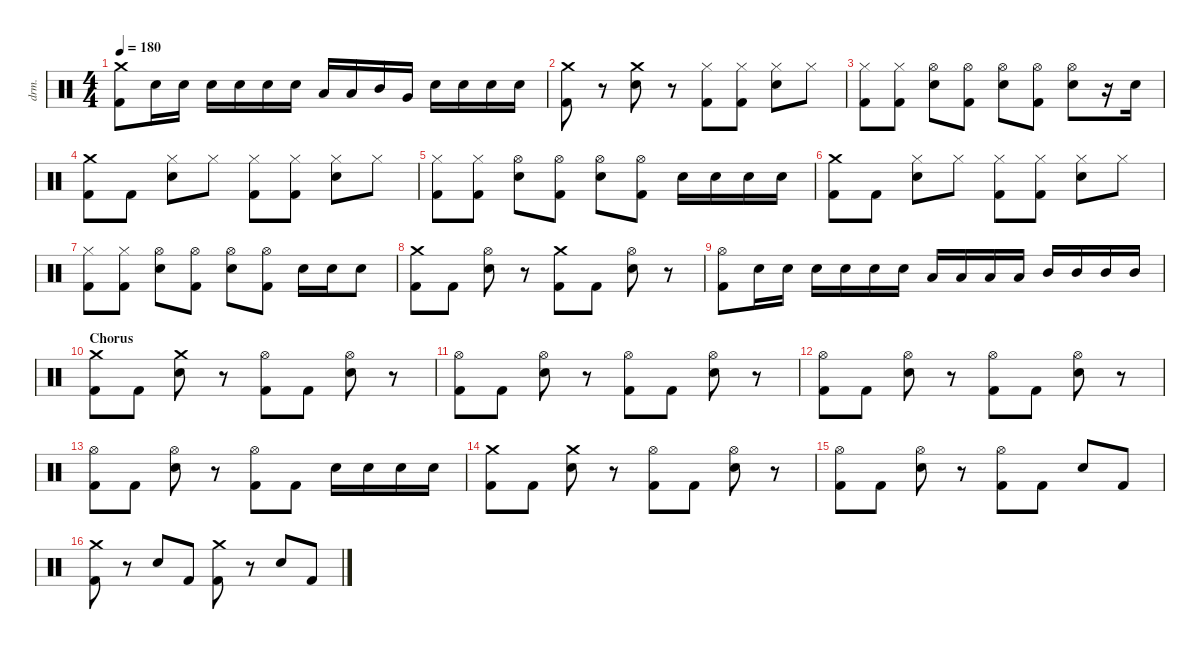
\defaultSystemsLayout 4
\hideDynamics
\bracketExtendMode nobrackets
\otherSystemsTrackNameOrientation horizontal
\track ("Drums" "drm.") {instrument percussion}
\staff {score}
\articulation defaults
\ts (4 4)
\tempo 180
\clef neutral
\ks c
("Crash medium (hit)" "Kick (hit) 2").8{dy f beam Down} "Snare (hit) 2".16{beam Down} "Snare (hit) 2".16{beam Down} "Snare (hit) 2".16{beam Down} "Snare (hit) 2".16{beam Down} "Snare (hit) 2".16{beam Down} "Snare (hit) 2".16{beam Down} "Low Tom (hit)".16{beam Up} "Low Tom (hit)".16{beam Up} "Mid Tom (hit)".16{beam Up} "Very Low Tom (hit)".16{beam Up} "Snare (hit) 2".16{beam Down} "Snare (hit) 2".16{beam Down} "Snare (hit) 2".16{beam Down} "Snare (hit) 2".16{beam Down} |
("Crash medium (hit)" "Kick (hit) 2").8{beam Down} r.8{beam Down} ("Crash medium (hit)" "Snare (hit) 2").8{beam Down} r.8{beam Down} ("Hi-Hat (closed)" "Kick (hit) 2").8{beam Down} ("Hi-Hat (closed)" "Kick (hit) 2").8{beam Down} ("Hi-Hat (closed)" "Snare (hit) 2").8{beam Down} "Hi-Hat (closed)".8{beam Down} |
("Hi-Hat (closed)" "Kick (hit) 2").8{beam Down} ("Hi-Hat (closed)" "Kick (hit) 2").8{beam Down} ("Hi-Hat (open)" "Snare (hit) 2").8{beam Down} ("Hi-Hat (open)" "Kick (hit) 2").8{beam Down} ("Hi-Hat (open)" "Snare (hit) 2").8{beam Down} ("Hi-Hat (open)" "Kick (hit) 2").8{beam Down} ("Hi-Hat (open)" "Snare (hit) 2").8{beam Down} r.16{beam Down} "Snare (hit) 2".16{beam Down} |
("Crash medium (hit)" "Kick (hit) 2").8{beam Down} "Kick (hit) 2".8{beam Down} ("Hi-Hat (closed)" "Snare (hit) 2").8{beam Down} "Hi-Hat (closed)".8{beam Down} ("Hi-Hat (closed)" "Kick (hit) 2").8{beam Down} ("Hi-Hat (closed)" "Kick (hit) 2").8{beam Down} ("Hi-Hat (closed)" "Snare (hit) 2").8{beam Down} "Hi-Hat (closed)".8{beam Down} |
("Hi-Hat (closed)" "Kick (hit) 2").8{beam Down} ("Hi-Hat (closed)" "Kick (hit) 2").8{beam Down} ("Hi-Hat (open)" "Snare (hit) 2").8{beam Down} ("Hi-Hat (open)" "Kick (hit) 2").8{beam Down} ("Hi-Hat (open)" "Snare (hit) 2").8{beam Down} ("Hi-Hat (open)" "Kick (hit) 2").8{beam Down} "Snare (hit) 2".16{beam Down} "Snare (hit) 2".16{beam Down} "Snare (hit) 2".16{beam Down} "Snare (hit) 2".16{beam Down} |
("Crash medium (hit)" "Kick (hit) 2").8{beam Down} "Kick (hit) 2".8{beam Down} ("Hi-Hat (closed)" "Snare (hit) 2").8{beam Down} "Hi-Hat (closed)".8{beam Down} ("Hi-Hat (closed)" "Kick (hit) 2").8{beam Down} ("Hi-Hat (closed)" "Kick (hit) 2").8{beam Down} ("Hi-Hat (closed)" "Snare (hit) 2").8{beam Down} "Hi-Hat (closed)".8{beam Down} |
("Hi-Hat (closed)" "Kick (hit) 2").8{beam Down} ("Hi-Hat (closed)" "Kick (hit) 2").8{beam Down} ("Hi-Hat (open)" "Snare (hit) 2").8{beam Down} ("Hi-Hat (open)" "Kick (hit) 2").8{beam Down} ("Hi-Hat (open)" "Snare (hit) 2").8{beam Down} ("Hi-Hat (open)" "Kick (hit) 2").8{beam Down} "Snare (hit) 2".16{beam Down} "Snare (hit) 2".16{beam Down} "Snare (hit) 2".8{beam Down} |
("Crash medium (hit)" "Kick (hit) 2").8{beam Down} "Kick (hit) 2".8{beam Down} ("Hi-Hat (open)" "Snare (hit) 2").8{beam Down} r.8{beam Down} ("Crash medium (hit)" "Kick (hit) 2").8{beam Down} "Kick (hit) 2".8{beam Down} ("Hi-Hat (open)" "Snare (hit) 2").8{beam Down} r.8{beam Down} |
("Hi-Hat (open)" "Kick (hit) 2").8{beam Down} "Snare (hit) 2".16{beam Down} "Snare (hit) 2".16{beam Down} "Snare (hit) 2".16{beam Down} "Snare (hit) 2".16{beam Down} "Snare (hit) 2".16{beam Down} "Snare (hit) 2".16{beam Down} "Low Tom (hit)".16{beam Up} "Low Tom (hit)".16{beam Up} "Low Tom (hit)".16{beam Up} "Low Tom (hit)".16{beam Up} "Mid Tom (hit)".16{beam Up} "Mid Tom (hit)".16{beam Up} "Mid Tom (hit)".16{beam Up} "Mid Tom (hit)".16{beam Up} |
\section ("" "Chorus")
("Crash medium (hit)" "Kick (hit) 2").8{beam Down} "Kick (hit) 2".8{beam Down} ("Crash medium (hit)" "Snare (hit) 2").8{beam Down} r.8{beam Down} ("Hi-Hat (open)" "Kick (hit) 2").8{beam Down} "Kick (hit) 2".8{beam Down} ("Hi-Hat (open)" "Snare (hit) 2").8{beam Down} r.8{beam Down} |
("Hi-Hat (open)" "Kick (hit) 2").8{beam Down} "Kick (hit) 2".8{beam Down} ("Hi-Hat (open)" "Snare (hit) 2").8{beam Down} r.8{beam Down} ("Hi-Hat (open)" "Kick (hit) 2").8{beam Down} "Kick (hit) 2".8{beam Down} ("Hi-Hat (open)" "Snare (hit) 2").8{beam Down} r.8{beam Down} |
("Hi-Hat (open)" "Kick (hit) 2").8{beam Down} "Kick (hit) 2".8{beam Down} ("Hi-Hat (open)" "Snare (hit) 2").8{beam Down} r.8{beam Down} ("Hi-Hat (open)" "Kick (hit) 2").8{beam Down} "Kick (hit) 2".8{beam Down} ("Hi-Hat (open)" "Snare (hit) 2").8{beam Down} r.8{beam Down} |
("Hi-Hat (open)" "Kick (hit) 2").8{beam Down} "Kick (hit) 2".8{beam Down} ("Hi-Hat (open)" "Snare (hit) 2").8{beam Down} r.8{beam Down} ("Hi-Hat (open)" "Kick (hit) 2").8{beam Down} "Kick (hit) 2".8{beam Down} "Snare (hit) 2".16{beam Down} "Snare (hit) 2".16{beam Down} "Snare (hit) 2".16{beam Down} "Snare (hit) 2".16{beam Down} |
("Crash medium (hit)" "Kick (hit) 2").8{beam Down} "Kick (hit) 2".8{beam Down} ("Crash medium (hit)" "Snare (hit) 2").8{beam Down} r.8{beam Down} ("Hi-Hat (open)" "Kick (hit) 2").8{beam Down} "Kick (hit) 2".8{beam Down} ("Hi-Hat (open)" "Snare (hit) 2").8{beam Down} r.8{beam Down} |
("Hi-Hat (open)" "Kick (hit) 2").8{beam Down} "Kick (hit) 2".8{beam Down} ("Hi-Hat (open)" "Snare (hit) 2").8{beam Down} r.8{beam Down} ("Hi-Hat (open)" "Kick (hit) 2").8{beam Down} "Kick (hit) 2".8{beam Down} "Snare (hit) 2".8{beam Up} "Kick (hit) 2".8{beam Up} |
("Crash medium (hit)" "Kick (hit) 2").8{beam Down} r.8{beam Down} "Snare (hit) 2".8{beam Up} "Kick (hit) 2".8{beam Up} ("Crash medium (hit)" "Kick (hit) 2").8{beam Down} r.8{beam Down} "Snare (hit) 2".8{beam Up} "Kick (hit) 2".8{beam Up}
